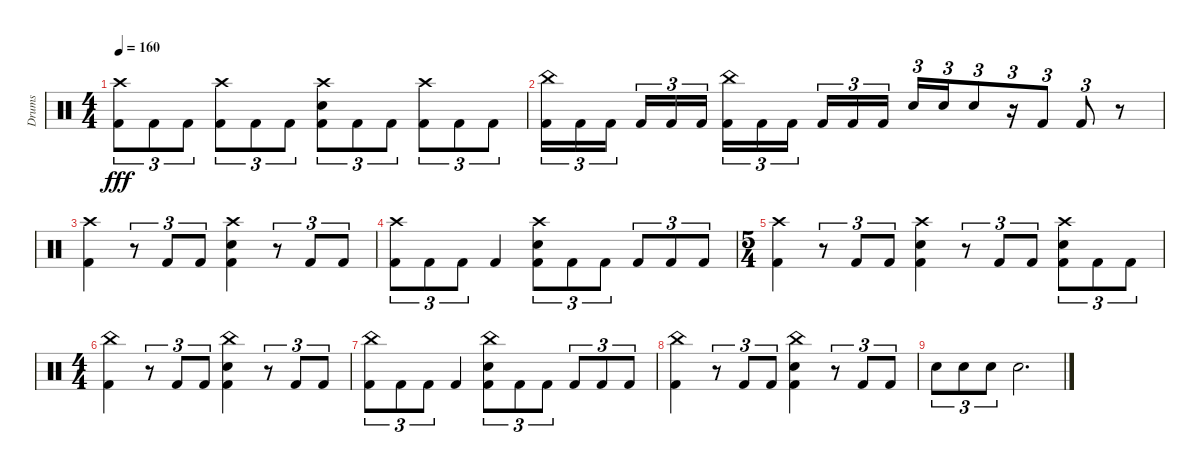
\track ("Drums" "Drums") {instrument percussion}
\staff {score}
\articulation defaults
\ts (4 4)
\tempo 160
\clef neutral
\ks c
("Crash high (hit)" "Kick (hit) 2").8{tu (3 2) dy fff} "Kick (hit) 2".8{tu (3 2)} "Kick (hit) 2".8{tu (3 2)} ("Crash high (hit)" "Kick (hit) 2").8{tu (3 2)} "Kick (hit) 2".8{tu (3 2)} "Kick (hit) 2".8{tu (3 2)} ("Crash high (hit)" "Snare (hit) 2" "Kick (hit) 2").8{tu (3 2)} "Kick (hit) 2".8{tu (3 2)} "Kick (hit) 2".8{tu (3 2)} ("Crash high (hit)" "Kick (hit) 2").8{tu (3 2)} "Kick (hit) 2".8{tu (3 2)} "Kick (hit) 2".8{tu (3 2)} |
("China (hit)" "Kick (hit) 2").16{tu (3 2)} "Kick (hit) 2".16{tu (3 2)} "Kick (hit) 2".16{tu (3 2) beam splitsecondary} "Kick (hit) 2".16{tu (3 2)} "Kick (hit) 2".16{tu (3 2)} "Kick (hit) 2".16{tu (3 2)} ("China (hit)" "Kick (hit) 2").16{tu (3 2)} "Kick (hit) 2".16{tu (3 2)} "Kick (hit) 2".16{tu (3 2) beam splitsecondary} "Kick (hit) 2".16{tu (3 2)} "Kick (hit) 2".16{tu (3 2)} "Kick (hit) 2".16{tu (3 2)} "Snare (hit) 2".16{tu (3 2)} "Snare (hit) 2".16{tu (3 2)} "Snare (hit) 2".8{tu (3 2)} r.16{tu (3 2)} "Kick (hit) 2".8{tu (3 2)} "Kick (hit) 2".8{tu (3 2)} r.8 |
("Crash high (hit)" "Kick (hit) 2").4 r.8{tu (3 2)} "Kick (hit) 2".8{tu (3 2)} "Kick (hit) 2".8{tu (3 2)} ("Crash high (hit)" "Snare (hit) 2" "Kick (hit) 2").4 r.8{tu (3 2)} "Kick (hit) 2".8{tu (3 2)} "Kick (hit) 2".8{tu (3 2)} |
("Crash high (hit)" "Kick (hit) 2").8{tu (3 2)} "Kick (hit) 2".8{tu (3 2)} "Kick (hit) 2".8{tu (3 2)} "Kick (hit) 2".4 ("Crash high (hit)" "Snare (hit) 2" "Kick (hit) 2").8{tu (3 2)} "Kick (hit) 2".8{tu (3 2)} "Kick (hit) 2".8{tu (3 2)} "Kick (hit) 2".8{tu (3 2)} "Kick (hit) 2".8{tu (3 2)} "Kick (hit) 2".8{tu (3 2)} |
\ts (5 4)
("Crash high (hit)" "Kick (hit) 2").4 r.8{tu (3 2)} "Kick (hit) 2".8{tu (3 2)} "Kick (hit) 2".8{tu (3 2)} ("Crash high (hit)" "Snare (hit) 2" "Kick (hit) 2").4 r.8{tu (3 2)} "Kick (hit) 2".8{tu (3 2)} "Kick (hit) 2".8{tu (3 2)} ("Crash high (hit)" "Snare (hit) 2" "Kick (hit) 2").8{tu (3 2)} "Kick (hit) 2".8{tu (3 2)} "Kick (hit) 2".8{tu (3 2)} |
\ts (4 4)
("China (hit)" "Kick (hit) 2").4 r.8{tu (3 2)} "Kick (hit) 2".8{tu (3 2)} "Kick (hit) 2".8{tu (3 2)} ("China (hit)" "Snare (hit) 2" "Kick (hit) 2").4 r.8{tu (3 2)} "Kick (hit) 2".8{tu (3 2)} "Kick (hit) 2".8{tu (3 2)} |
("China (hit)" "Kick (hit) 2").8{tu (3 2)} "Kick (hit) 2".8{tu (3 2)} "Kick (hit) 2".8{tu (3 2)} "Kick (hit) 2".4 ("China (hit)" "Snare (hit) 2" "Kick (hit) 2").8{tu (3 2)} "Kick (hit) 2".8{tu (3 2)} "Kick (hit) 2".8{tu (3 2)} "Kick (hit) 2".8{tu (3 2)} "Kick (hit) 2".8{tu (3 2)} "Kick (hit) 2".8{tu (3 2)} |
("China (hit)" "Kick (hit) 2").4 r.8{tu (3 2)} "Kick (hit) 2".8{tu (3 2)} "Kick (hit) 2".8{tu (3 2)} ("China (hit)" "Snare (hit) 2" "Kick (hit) 2").4 r.8{tu (3 2)} "Kick (hit) 2".8{tu (3 2)} "Kick (hit) 2".8{tu (3 2)} |
"Snare (hit) 2".8{tu (3 2)} "Snare (hit) 2".8{tu (3 2)} "Snare (hit) 2".8{tu (3 2)} "Snare (hit) 2".2{d}
